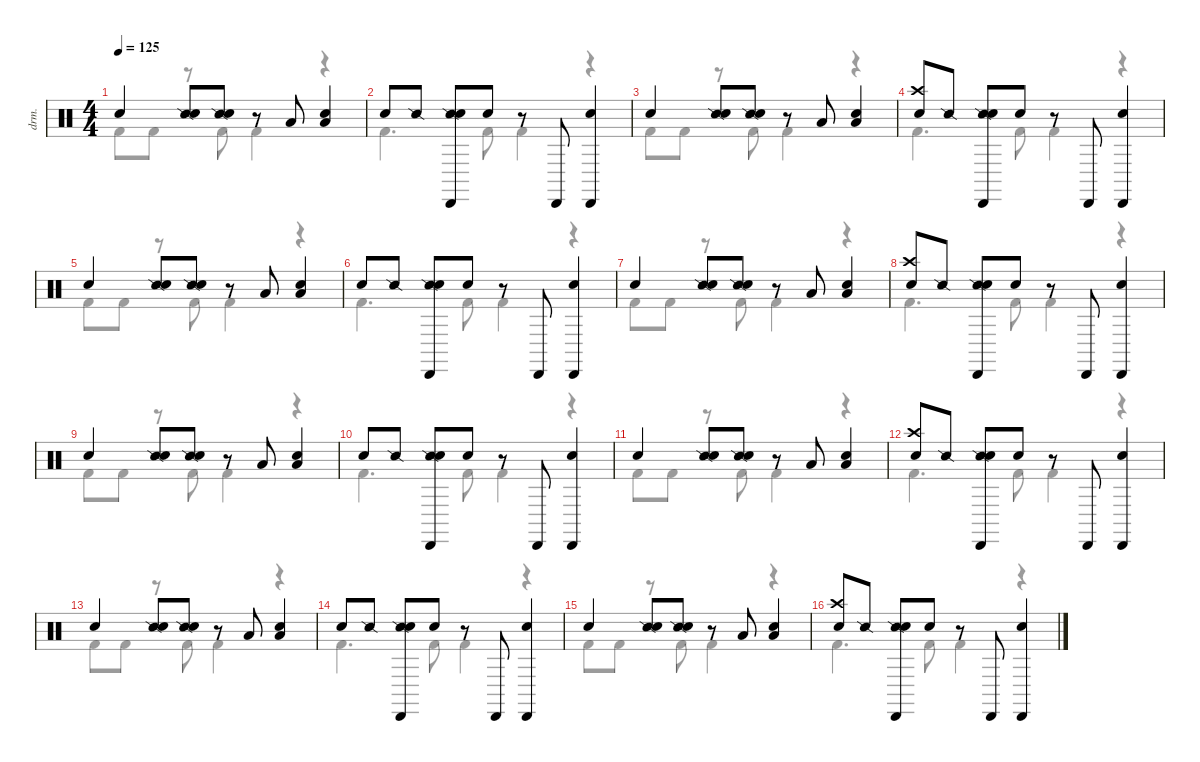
\defaultSystemsLayout 4
\hideDynamics
\bracketExtendMode nobrackets
\otherSystemsTrackNameOrientation horizontal
\track ("Drums" "drm.") {instrument percussion}
\staff {score}
\articulation defaults
\voice
\ts (4 4)
\tempo 125
\clef neutral
\ks c "Hand Clap (hit)".4{dy p beam Up}
("Snare (side stick) 2" "Snare (hit) 2").8{dy mf beam Up} ("Snare (side stick) 2" "Hand Clap (hit)").8{beam Up} r.8{beam Up} "Low Tom (hit)".8{dy f beam Up} ("Low Tom (hit)" "Snare (hit) 2").4{beam Up} |
"Hand Clap (hit)".8{dy p beam Up} "Snare (side stick) 2".8{dy f beam Up} ("Snare (side stick) 2" "Cabasa (hit)" "Snare (hit) 2").8{beam Up} "Hand Clap (hit)".8{dy p beam Up} r.8{beam Up} "Cabasa (hit)".8{dy f beam Up} ("Cabasa (hit)" "Snare (hit) 2").4{beam Up} |
"Hand Clap (hit)".4{dy p beam Up} ("Snare (side stick) 2" "Snare (hit) 2").8{dy mf beam Up} ("Snare (side stick) 2" "Hand Clap (hit)").8{beam Up} r.8{beam Up} "Low Tom (hit)".8{dy f beam Up} ("Low Tom (hit)" "Snare (hit) 2").4{beam Up} |
("Crash high (hit)" "Hand Clap (hit)").8{dy mp beam Up} "Snare (side stick) 2".8{dy f beam Up} ("Snare (side stick) 2" "Cabasa (hit)" "Snare (hit) 2").8{beam Up} "Hand Clap (hit)".8{dy p beam Up} r.8{beam Up} "Cabasa (hit)".8{dy f beam Up} ("Cabasa (hit)" "Snare (hit) 2").4{beam Up} |
"Hand Clap (hit)".4{dy p beam Up} ("Snare (side stick) 2" "Snare (hit) 2").8{dy mf beam Up} ("Snare (side stick) 2" "Hand Clap (hit)").8{beam Up} r.8{beam Up} "Low Tom (hit)".8{dy f beam Up} ("Low Tom (hit)" "Snare (hit) 2").4{beam Up} |
"Hand Clap (hit)".8{dy p beam Up} "Snare (side stick) 2".8{dy f beam Up} ("Snare (side stick) 2" "Cabasa (hit)" "Snare (hit) 2").8{beam Up} "Hand Clap (hit)".8{dy p beam Up} r.8{beam Up} "Cabasa (hit)".8{dy f beam Up} ("Cabasa (hit)" "Snare (hit) 2").4{beam Up} |
"Hand Clap (hit)".4{dy p beam Up} ("Snare (side stick) 2" "Snare (hit) 2").8{dy mf beam Up} ("Snare (side stick) 2" "Hand Clap (hit)").8{beam Up} r.8{beam Up} "Low Tom (hit)".8{dy f beam Up} ("Low Tom (hit)" "Snare (hit) 2").4{beam Up} |
("Crash high (hit)" "Hand Clap (hit)").8{dy mp beam Up} "Snare (side stick) 2".8{dy f beam Up} ("Snare (side stick) 2" "Cabasa (hit)" "Snare (hit) 2").8{beam Up} "Hand Clap (hit)".8{dy p beam Up} r.8{beam Up} "Cabasa (hit)".8{dy f beam Up} ("Cabasa (hit)" "Snare (hit) 2").4{beam Up} |
"Hand Clap (hit)".4{dy p beam Up} ("Snare (side stick) 2" "Snare (hit) 2").8{dy mf beam Up} ("Snare (side stick) 2" "Hand Clap (hit)").8{beam Up} r.8{beam Up} "Low Tom (hit)".8{dy f beam Up} ("Low Tom (hit)" "Snare (hit) 2").4{beam Up} |
"Hand Clap (hit)".8{dy p beam Up} "Snare (side stick) 2".8{dy f beam Up} ("Snare (side stick) 2" "Cabasa (hit)" "Snare (hit) 2").8{beam Up} "Hand Clap (hit)".8{dy p beam Up} r.8{beam Up} "Cabasa (hit)".8{dy f beam Up} ("Cabasa (hit)" "Snare (hit) 2").4{beam Up} |
"Hand Clap (hit)".4{dy p beam Up} ("Snare (side stick) 2" "Snare (hit) 2").8{dy mf beam Up} ("Snare (side stick) 2" "Hand Clap (hit)").8{beam Up} r.8{beam Up} "Low Tom (hit)".8{dy f beam Up} ("Low Tom (hit)" "Snare (hit) 2").4{beam Up} |
("Crash high (hit)" "Hand Clap (hit)").8{dy mp beam Up} "Snare (side stick) 2".8{dy f beam Up} ("Snare (side stick) 2" "Cabasa (hit)" "Snare (hit) 2").8{beam Up} "Hand Clap (hit)".8{dy p beam Up} r.8{beam Up} "Cabasa (hit)".8{dy f beam Up} ("Cabasa (hit)" "Snare (hit) 2").4{beam Up} |
"Hand Clap (hit)".4{dy p beam Up} ("Snare (side stick) 2" "Snare (hit) 2").8{dy mf beam Up} ("Snare (side stick) 2" "Hand Clap (hit)").8{beam Up} r.8{beam Up} "Low Tom (hit)".8{dy f beam Up} ("Low Tom (hit)" "Snare (hit) 2").4{beam Up} |
"Hand Clap (hit)".8{dy p beam Up} "Snare (side stick) 2".8{dy f beam Up} ("Snare (side stick) 2" "Cabasa (hit)" "Snare (hit) 2").8{beam Up} "Hand Clap (hit)".8{dy p beam Up} r.8{beam Up} "Cabasa (hit)".8{dy f beam Up} ("Cabasa (hit)" "Snare (hit) 2").4{beam Up} |
"Hand Clap (hit)".4{dy p beam Up} ("Snare (side stick) 2" "Snare (hit) 2").8{dy mf beam Up} ("Snare (side stick) 2" "Hand Clap (hit)").8{beam Up} r.8{beam Up} "Low Tom (hit)".8{dy f beam Up} ("Low Tom (hit)" "Snare (hit) 2").4{beam Up} |
("Crash high (hit)" "Hand Clap (hit)").8{dy mp beam Up} "Snare (side stick) 2".8{dy f beam Up} ("Snare (side stick) 2" "Cabasa (hit)" "Snare (hit) 2").8{beam Up} "Hand Clap (hit)".8{dy p beam Up} r.8{beam Up} "Cabasa (hit)".8{dy f beam Up} ("Cabasa (hit)" "Snare (hit) 2").4{beam Up}
\voice
\clef neutral
\ottava regular
\simile none
\ks c "Kick (hit) 2".8{dy ff beam Down} "Kick (hit) 2".8{dy p beam Down}
r.8{beam Down} "Kick (hit) 2".8{dy ff beam Down} "Kick (hit) 2".4{dy p beam Down} r.4{beam Down} |
"Kick (hit) 2".4{d dy ff beam Down} "Kick (hit) 2".8{beam Down} "Kick (hit) 2".4{dy p beam Down} r.4{beam Down} |
"Kick (hit) 2".8{dy ff beam Down} "Kick (hit) 2".8{dy p beam Down} r.8{beam Down} "Kick (hit) 2".8{dy ff beam Down} "Kick (hit) 2".4{dy p beam Down} r.4{beam Down} |
"Kick (hit) 2".4{d dy ff beam Down} "Kick (hit) 2".8{beam Down} "Kick (hit) 2".4{dy p beam Down} r.4{beam Down} |
"Kick (hit) 2".8{dy ff beam Down} "Kick (hit) 2".8{dy p beam Down} r.8{beam Down} "Kick (hit) 2".8{dy ff beam Down} "Kick (hit) 2".4{dy p beam Down} r.4{beam Down} |
"Kick (hit) 2".4{d dy ff beam Down} "Kick (hit) 2".8{beam Down} "Kick (hit) 2".4{dy p beam Down} r.4{beam Down} |
"Kick (hit) 2".8{dy ff beam Down} "Kick (hit) 2".8{dy p beam Down} r.8{beam Down} "Kick (hit) 2".8{dy ff beam Down} "Kick (hit) 2".4{dy p beam Down} r.4{beam Down} |
"Kick (hit) 2".4{d dy ff beam Down} "Kick (hit) 2".8{beam Down} "Kick (hit) 2".4{dy p beam Down} r.4{beam Down} |
"Kick (hit) 2".8{dy ff beam Down} "Kick (hit) 2".8{dy p beam Down} r.8{beam Down} "Kick (hit) 2".8{dy ff beam Down} "Kick (hit) 2".4{dy p beam Down} r.4{beam Down} |
"Kick (hit) 2".4{d dy ff beam Down} "Kick (hit) 2".8{beam Down} "Kick (hit) 2".4{dy p beam Down} r.4{beam Down} |
"Kick (hit) 2".8{dy ff beam Down} "Kick (hit) 2".8{dy p beam Down} r.8{beam Down} "Kick (hit) 2".8{dy ff beam Down} "Kick (hit) 2".4{dy p beam Down} r.4{beam Down} |
"Kick (hit) 2".4{d dy ff beam Down} "Kick (hit) 2".8{beam Down} "Kick (hit) 2".4{dy p beam Down} r.4{beam Down} |
"Kick (hit) 2".8{dy ff beam Down} "Kick (hit) 2".8{dy p beam Down} r.8{beam Down} "Kick (hit) 2".8{dy ff beam Down} "Kick (hit) 2".4{dy p beam Down} r.4{beam Down} |
"Kick (hit) 2".4{d dy ff beam Down} "Kick (hit) 2".8{beam Down} "Kick (hit) 2".4{dy p beam Down} r.4{beam Down} |
"Kick (hit) 2".8{dy ff beam Down} "Kick (hit) 2".8{dy p beam Down} r.8{beam Down} "Kick (hit) 2".8{dy ff beam Down} "Kick (hit) 2".4{dy p beam Down} r.4{beam Down} |
"Kick (hit) 2".4{d dy ff beam Down} "Kick (hit) 2".8{beam Down} "Kick (hit) 2".4{dy p beam Down} r.4{beam Down}
